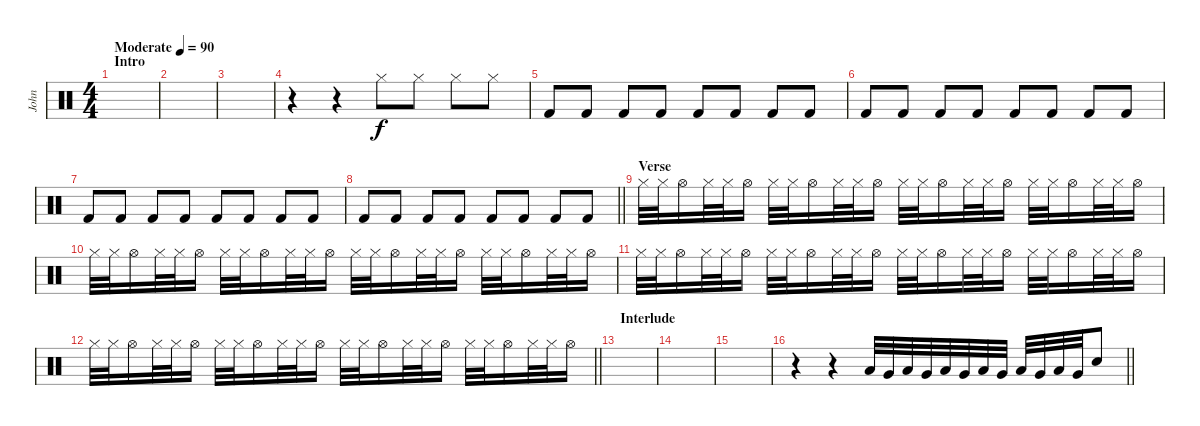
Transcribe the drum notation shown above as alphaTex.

\track ("John" "John") {instrument percussion}
\staff {score}
\articulation defaults
\ts (4 4)
\section ("" "Intro")
\tempo (90 "Moderate")
\clef neutral
\ks c
|
|
|
r.4 r.4 "Hi-Hat (closed)".8 "Hi-Hat (closed)".8 "Hi-Hat (closed)".8 "Hi-Hat (closed)".8 |
"Kick (hit) 2".8 "Kick (hit) 2".8 "Kick (hit) 2".8 "Kick (hit) 2".8 "Kick (hit) 2".8 "Kick (hit) 2".8 "Kick (hit) 2".8 "Kick (hit) 2".8 |
"Kick (hit) 2".8 "Kick (hit) 2".8 "Kick (hit) 2".8 "Kick (hit) 2".8 "Kick (hit) 2".8 "Kick (hit) 2".8 "Kick (hit) 2".8 "Kick (hit) 2".8 |
"Kick (hit) 2".8 "Kick (hit) 2".8 "Kick (hit) 2".8 "Kick (hit) 2".8 "Kick (hit) 2".8 "Kick (hit) 2".8 "Kick (hit) 2".8 "Kick (hit) 2".8 |
\barLineRight lightlight "Kick (hit) 2".8 "Kick (hit) 2".8 "Kick (hit) 2".8 "Kick (hit) 2".8 "Kick (hit) 2".8 "Kick (hit) 2".8 "Kick (hit) 2".8 "Kick (hit) 2".8
|
\section ("" "Verse")
"Hi-Hat (closed)".32 "Hi-Hat (closed)".32 "Hi-Hat (open)".16 "Hi-Hat (closed)".32 "Hi-Hat (closed)".32 "Hi-Hat (open)".16 "Hi-Hat (closed)".32 "Hi-Hat (closed)".32 "Hi-Hat (open)".16 "Hi-Hat (closed)".32 "Hi-Hat (closed)".32 "Hi-Hat (open)".16 "Hi-Hat (closed)".32 "Hi-Hat (closed)".32 "Hi-Hat (open)".16 "Hi-Hat (closed)".32 "Hi-Hat (closed)".32 "Hi-Hat (open)".16 "Hi-Hat (closed)".32 "Hi-Hat (closed)".32 "Hi-Hat (open)".16 "Hi-Hat (closed)".32 "Hi-Hat (closed)".32 "Hi-Hat (open)".16 |
"Hi-Hat (closed)".32 "Hi-Hat (closed)".32 "Hi-Hat (open)".16 "Hi-Hat (closed)".32 "Hi-Hat (closed)".32 "Hi-Hat (open)".16 "Hi-Hat (closed)".32 "Hi-Hat (closed)".32 "Hi-Hat (open)".16 "Hi-Hat (closed)".32 "Hi-Hat (closed)".32 "Hi-Hat (open)".16 "Hi-Hat (closed)".32 "Hi-Hat (closed)".32 "Hi-Hat (open)".16 "Hi-Hat (closed)".32 "Hi-Hat (closed)".32 "Hi-Hat (open)".16 "Hi-Hat (closed)".32 "Hi-Hat (closed)".32 "Hi-Hat (open)".16 "Hi-Hat (closed)".32 "Hi-Hat (closed)".32 "Hi-Hat (open)".16 |
"Hi-Hat (closed)".32 "Hi-Hat (closed)".32 "Hi-Hat (open)".16 "Hi-Hat (closed)".32 "Hi-Hat (closed)".32 "Hi-Hat (open)".16 "Hi-Hat (closed)".32 "Hi-Hat (closed)".32 "Hi-Hat (open)".16 "Hi-Hat (closed)".32 "Hi-Hat (closed)".32 "Hi-Hat (open)".16 "Hi-Hat (closed)".32 "Hi-Hat (closed)".32 "Hi-Hat (open)".16 "Hi-Hat (closed)".32 "Hi-Hat (closed)".32 "Hi-Hat (open)".16 "Hi-Hat (closed)".32 "Hi-Hat (closed)".32 "Hi-Hat (open)".16 "Hi-Hat (closed)".32 "Hi-Hat (closed)".32 "Hi-Hat (open)".16 |
\barLineRight lightlight "Hi-Hat (closed)".32 "Hi-Hat (closed)".32 "Hi-Hat (open)".16 "Hi-Hat (closed)".32 "Hi-Hat (closed)".32 "Hi-Hat (open)".16 "Hi-Hat (closed)".32 "Hi-Hat (closed)".32 "Hi-Hat (open)".16 "Hi-Hat (closed)".32 "Hi-Hat (closed)".32 "Hi-Hat (open)".16 "Hi-Hat (closed)".32 "Hi-Hat (closed)".32 "Hi-Hat (open)".16 "Hi-Hat (closed)".32 "Hi-Hat (closed)".32 "Hi-Hat (open)".16 "Hi-Hat (closed)".32 "Hi-Hat (closed)".32 "Hi-Hat (open)".16 "Hi-Hat (closed)".32 "Hi-Hat (closed)".32 "Hi-Hat (open)".16
|
\section ("" "Interlude")
|
|
|
\barLineRight lightlight
r.4 r.4 "Low Tom (hit)".32 "Very Low Tom (hit)".32 "Low Floor Tom (hit)".32 "Very Low Tom (hit)".32 "Low Tom (hit)".32 "Very Low Tom (hit)".32 "Low Floor Tom (hit)".32 "Very Low Tom (hit)".32 "Low Tom (hit)".32 "Very Low Tom (hit)".32 "Low Floor Tom (hit)".32 "Very Low Tom (hit)".32 "Electric Snare (hit)".8
